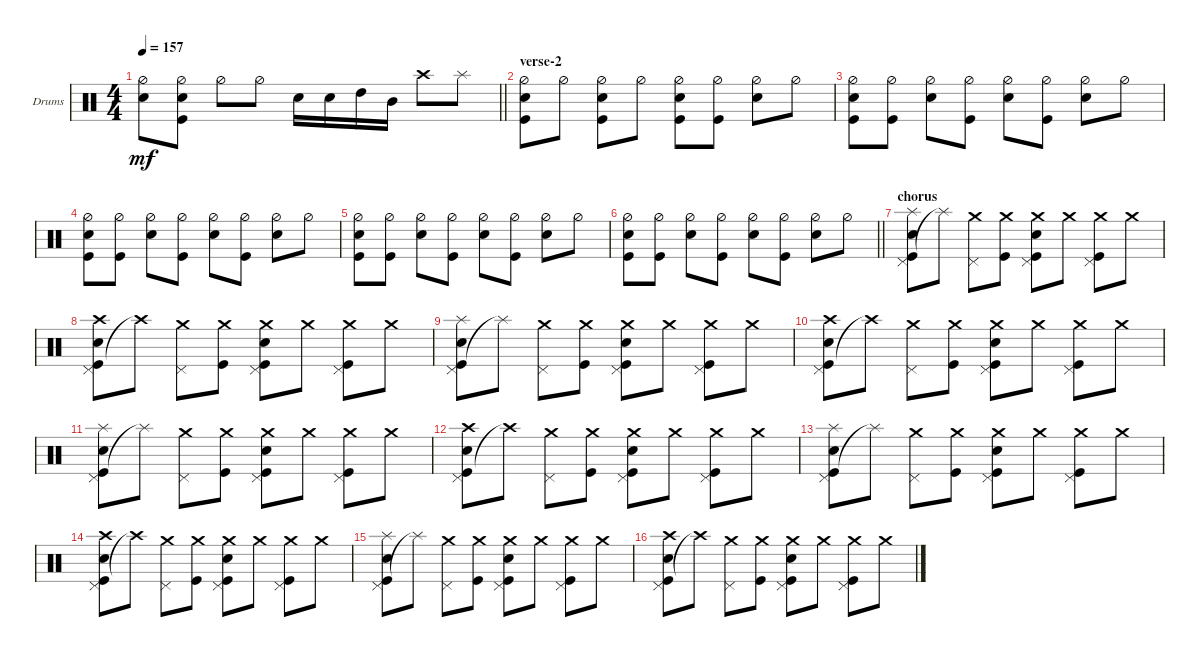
\bracketExtendMode groupsimilarinstruments
\firstSystemTrackNameOrientation horizontal
\otherSystemsTrackNameOrientation horizontal
\track ("Drumkit" "Drums") {instrument percussion}
\staff {score}
\articulation defaults
\ts (4 4)
\tempo 157
\clef neutral
\scale
0.333333
\barLineRight lightlight
\ks c
("Hi-Hat (half)" "Snare (hit) 2").8{dy mf} ("Hi-Hat (half)" "Snare (hit) 2" "Kick (hit)").8 "Hi-Hat (half)".8 "Hi-Hat (half)".8 "Snare (hit) 2".16 "Snare (hit) 2".16 "High Tom (hit)".16 "Mid Tom (hit)".16 "Crash high (hit)".8 "Splash (hit)".8 |
\section ("" "verse-2")
\scale
0.333333 ("Hi-Hat (half)" "Kick (hit)" "Snare (hit) 2").8 "Hi-Hat (half)".8 ("Hi-Hat (half)" "Kick (hit)" "Snare (hit) 2").8 "Hi-Hat (half)".8 ("Hi-Hat (half)" "Kick (hit)" "Snare (hit) 2").8 ("Hi-Hat (half)" "Kick (hit)").8 ("Hi-Hat (half)" "Snare (hit) 2").8 "Hi-Hat (half)".8 |
\scale
0.333333 ("Hi-Hat (half)" "Kick (hit)" "Snare (hit) 2").8 ("Hi-Hat (half)" "Kick (hit)").8 ("Hi-Hat (half)" "Snare (hit) 2").8 ("Hi-Hat (half)" "Kick (hit)").8 ("Hi-Hat (half)" "Snare (hit) 2").8 ("Hi-Hat (half)" "Kick (hit)").8 ("Hi-Hat (half)" "Snare (hit) 2").8 "Hi-Hat (half)".8 |
\scale
0.333333 ("Hi-Hat (half)" "Kick (hit)" "Snare (hit) 2").8 ("Hi-Hat (half)" "Kick (hit)").8 ("Hi-Hat (half)" "Snare (hit) 2").8 ("Hi-Hat (half)" "Kick (hit)").8 ("Hi-Hat (half)" "Snare (hit) 2").8 ("Hi-Hat (half)" "Kick (hit)").8 ("Hi-Hat (half)" "Snare (hit) 2").8 "Hi-Hat (half)".8 |
\scale
0.333333 ("Hi-Hat (half)" "Kick (hit)" "Snare (hit) 2").8 ("Hi-Hat (half)" "Kick (hit)").8 ("Hi-Hat (half)" "Snare (hit) 2").8 ("Hi-Hat (half)" "Kick (hit)").8 ("Hi-Hat (half)" "Snare (hit) 2").8 ("Hi-Hat (half)" "Kick (hit)").8 ("Hi-Hat (half)" "Snare (hit) 2").8 "Hi-Hat (half)".8 |
\scale
0.333333
\barLineRight lightlight
("Hi-Hat (half)" "Kick (hit)" "Snare (hit) 2").8 ("Hi-Hat (half)" "Kick (hit)").8 ("Hi-Hat (half)" "Snare (hit) 2").8 ("Hi-Hat (half)" "Kick (hit)").8 ("Hi-Hat (half)" "Snare (hit) 2").8 ("Hi-Hat (half)" "Kick (hit)").8 ("Hi-Hat (half)" "Snare (hit) 2").8 "Hi-Hat (half)".8 |
\section ("" "chorus")
\scale
0.333333 ("Kick (hit)" "Snare (hit) 2" "Pedal Hi-Hat (hit)" "Splash (hit)").8 "Splash (hit)"{t}.8 ("Pedal Hi-Hat (hit)" "Crash medium (hit)").8 ("Kick (hit)" "Crash medium (hit)").8 ("Kick (hit)" "Snare (hit) 2" "Pedal Hi-Hat (hit)" "Crash medium (hit)").8 "Crash medium (hit)".8 ("Pedal Hi-Hat (hit)" "Kick (hit)" "Crash medium (hit)").8 "Crash medium (hit)".8 |
\scale
0.333333 ("Kick (hit)" "Snare (hit) 2" "Pedal Hi-Hat (hit)" "Crash high (hit)").8 "Crash high (hit)"{t}.8 ("Pedal Hi-Hat (hit)" "Crash medium (hit)").8 ("Kick (hit)" "Crash medium (hit)").8 ("Kick (hit)" "Snare (hit) 2" "Pedal Hi-Hat (hit)" "Crash medium (hit)").8 "Crash medium (hit)".8 ("Pedal Hi-Hat (hit)" "Kick (hit)" "Crash medium (hit)").8 "Crash medium (hit)".8 |
\scale
0.333333 ("Kick (hit)" "Snare (hit) 2" "Pedal Hi-Hat (hit)" "Splash (hit)").8 "Splash (hit)"{t}.8 ("Pedal Hi-Hat (hit)" "Crash medium (hit)").8 ("Kick (hit)" "Crash medium (hit)").8 ("Kick (hit)" "Snare (hit) 2" "Pedal Hi-Hat (hit)" "Crash medium (hit)").8 "Crash medium (hit)".8 ("Pedal Hi-Hat (hit)" "Kick (hit)" "Crash medium (hit)").8 "Crash medium (hit)".8 |
\scale
0.383378
\scale
0.333333 ("Kick (hit)" "Snare (hit) 2" "Pedal Hi-Hat (hit)" "Crash high (hit)").8 "Crash high (hit)"{t}.8 ("Pedal Hi-Hat (hit)" "Crash medium (hit)").8 ("Kick (hit)" "Crash medium (hit)").8 ("Kick (hit)" "Snare (hit) 2" "Pedal Hi-Hat (hit)" "Crash medium (hit)").8 "Crash medium (hit)".8 ("Pedal Hi-Hat (hit)" "Kick (hit)" "Crash medium (hit)").8 "Crash medium (hit)".8 |
\scale
0.241287
\scale
0.333333 ("Kick (hit)" "Snare (hit) 2" "Pedal Hi-Hat (hit)" "Splash (hit)").8 "Splash (hit)"{t}.8 ("Pedal Hi-Hat (hit)" "Crash medium (hit)").8 ("Kick (hit)" "Crash medium (hit)").8 ("Kick (hit)" "Snare (hit) 2" "Pedal Hi-Hat (hit)" "Crash medium (hit)").8 "Crash medium (hit)".8 ("Pedal Hi-Hat (hit)" "Kick (hit)" "Crash medium (hit)").8 "Crash medium (hit)".8 |
\scale
0.187668
\scale
0.333333 ("Kick (hit)" "Snare (hit) 2" "Pedal Hi-Hat (hit)" "Crash high (hit)").8 "Crash high (hit)"{t}.8 ("Pedal Hi-Hat (hit)" "Crash medium (hit)").8 ("Kick (hit)" "Crash medium (hit)").8 ("Kick (hit)" "Snare (hit) 2" "Pedal Hi-Hat (hit)" "Crash medium (hit)").8 "Crash medium (hit)".8 ("Pedal Hi-Hat (hit)" "Kick (hit)" "Crash medium (hit)").8 "Crash medium (hit)".8 |
\scale
0.187668
\scale
0.333333 ("Kick (hit)" "Snare (hit) 2" "Pedal Hi-Hat (hit)" "Splash (hit)").8 "Splash (hit)"{t}.8 ("Pedal Hi-Hat (hit)" "Crash medium (hit)").8 ("Kick (hit)" "Crash medium (hit)").8 ("Kick (hit)" "Snare (hit) 2" "Pedal Hi-Hat (hit)" "Crash medium (hit)").8 "Crash medium (hit)".8 ("Pedal Hi-Hat (hit)" "Kick (hit)" "Crash medium (hit)").8 "Crash medium (hit)".8 |
\scale
0.333333 ("Kick (hit)" "Snare (hit) 2" "Pedal Hi-Hat (hit)" "Crash high (hit)").8 "Crash high (hit)"{t}.8 ("Pedal Hi-Hat (hit)" "Crash medium (hit)").8 ("Kick (hit)" "Crash medium (hit)").8 ("Kick (hit)" "Snare (hit) 2" "Pedal Hi-Hat (hit)" "Crash medium (hit)").8 "Crash medium (hit)".8 ("Pedal Hi-Hat (hit)" "Kick (hit)" "Crash medium (hit)").8 "Crash medium (hit)".8 |
\scale
0.333333 ("Kick (hit)" "Snare (hit) 2" "Pedal Hi-Hat (hit)" "Splash (hit)").8 "Splash (hit)"{t}.8 ("Pedal Hi-Hat (hit)" "Crash medium (hit)").8 ("Kick (hit)" "Crash medium (hit)").8 ("Kick (hit)" "Snare (hit) 2" "Pedal Hi-Hat (hit)" "Crash medium (hit)").8 "Crash medium (hit)".8 ("Pedal Hi-Hat (hit)" "Kick (hit)" "Crash medium (hit)").8 "Crash medium (hit)".8 |
\scale
0.333333 ("Kick (hit)" "Snare (hit) 2" "Pedal Hi-Hat (hit)" "Crash high (hit)").8 "Crash high (hit)"{t}.8 ("Pedal Hi-Hat (hit)" "Crash medium (hit)").8 ("Kick (hit)" "Crash medium (hit)").8 ("Kick (hit)" "Snare (hit) 2" "Pedal Hi-Hat (hit)" "Crash medium (hit)").8 "Crash medium (hit)".8 ("Pedal Hi-Hat (hit)" "Kick (hit)" "Crash medium (hit)").8 "Crash medium (hit)".8
